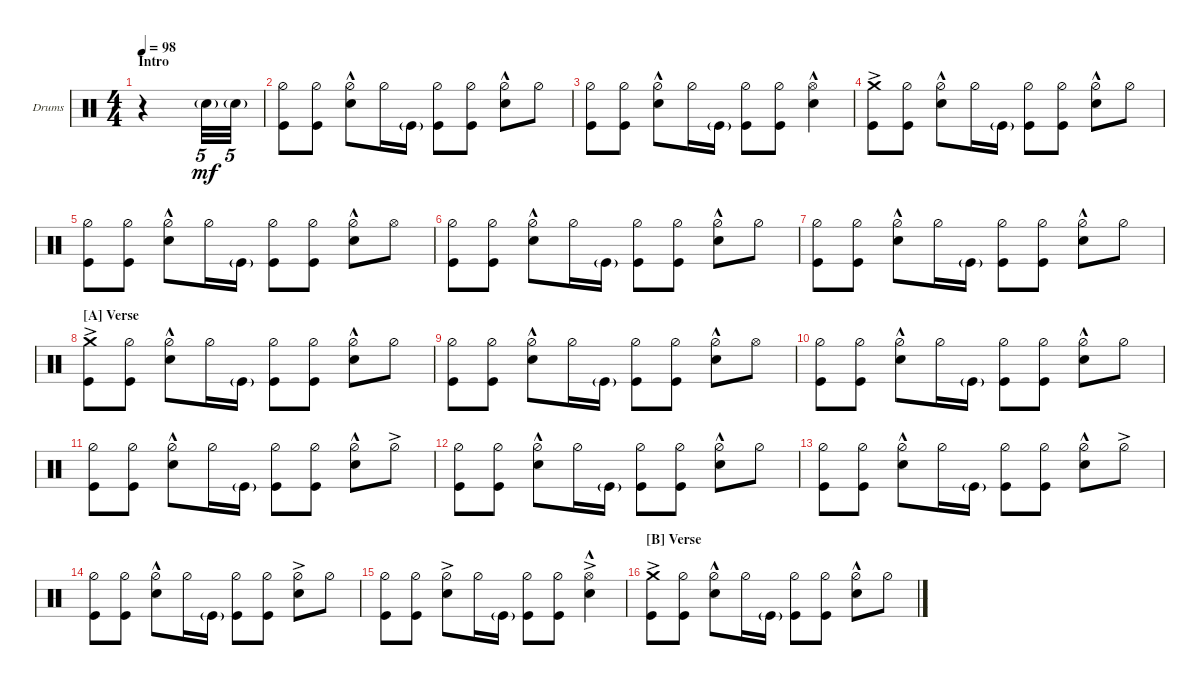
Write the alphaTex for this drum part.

\defaultSystemsLayout 4
\bracketExtendMode groupsimilarinstruments
\firstSystemTrackNameOrientation horizontal
\otherSystemsTrackNameOrientation horizontal
\track ("Drumkit (Chad Smith)" "Drums") {instrument percussion}
\staff {score}
\articulation defaults
\ts (4 4)
\section ("" "Intro")
\ac
\tempo 98
\clef neutral
\scale
0.474178
\ks c
r.4{dy mf} "Snare (hit) 2"{g}.32{tu (5 4)} "Snare (hit) 2"{g}.32{tu (5 4)} |
\scale
0.262911 ("Kick (hit)" "Hi-Hat (half)").8 ("Kick (hit)" "Hi-Hat (half)").8 ("Snare (hit) 2"{hac} "Hi-Hat (half)").8 "Hi-Hat (half)".16 "Kick (hit)"{g}.16 ("Kick (hit)" "Hi-Hat (half)").8 ("Kick (hit)" "Hi-Hat (half)").8 ("Snare (hit) 2"{hac} "Hi-Hat (half)").8 "Hi-Hat (half)".8 |
\scale
0.262911 ("Kick (hit)" "Hi-Hat (half)").8 ("Kick (hit)" "Hi-Hat (half)").8 ("Snare (hit) 2"{hac} "Hi-Hat (half)").8 "Hi-Hat (half)".16 "Kick (hit)"{g}.16 ("Kick (hit)" "Hi-Hat (half)").8 ("Kick (hit)" "Hi-Hat (half)").8 ("Snare (hit) 2"{hac} "Hi-Hat (open)").4 |
\scale
0.333333 ("Kick (hit)" "Crash medium (hit)"{ac}).8 ("Kick (hit)" "Hi-Hat (half)").8 ("Snare (hit) 2"{hac} "Hi-Hat (half)").8 "Hi-Hat (half)".16 "Kick (hit)"{g}.16 ("Kick (hit)" "Hi-Hat (half)").8 ("Kick (hit)" "Hi-Hat (half)").8 ("Snare (hit) 2"{hac} "Hi-Hat (half)").8 "Hi-Hat (half)".8 |
\scale
0.333333 ("Kick (hit)" "Hi-Hat (half)").8 ("Kick (hit)" "Hi-Hat (half)").8 ("Snare (hit) 2"{hac} "Hi-Hat (half)").8 "Hi-Hat (half)".16 "Kick (hit)"{g}.16 ("Kick (hit)" "Hi-Hat (half)").8 ("Kick (hit)" "Hi-Hat (half)").8 ("Snare (hit) 2"{hac} "Hi-Hat (half)").8 "Hi-Hat (open)".8 |
\scale
0.333333 ("Kick (hit)" "Hi-Hat (half)").8 ("Kick (hit)" "Hi-Hat (half)").8 ("Snare (hit) 2"{hac} "Hi-Hat (half)").8 "Hi-Hat (half)".16 "Kick (hit)"{g}.16 ("Kick (hit)" "Hi-Hat (half)").8 ("Kick (hit)" "Hi-Hat (half)").8 ("Snare (hit) 2"{hac} "Hi-Hat (half)").8 "Hi-Hat (half)".8 |
\scale
0.333333 ("Kick (hit)" "Hi-Hat (half)").8 ("Kick (hit)" "Hi-Hat (half)").8 ("Snare (hit) 2"{hac} "Hi-Hat (half)").8 "Hi-Hat (half)".16 "Kick (hit)"{g}.16 ("Kick (hit)" "Hi-Hat (half)").8 ("Kick (hit)" "Hi-Hat (half)").8 ("Snare (hit) 2"{hac} "Hi-Hat (half)").8 "Hi-Hat (half)".8 |
\section ("A" "Verse")
\scale
0.333333 ("Kick (hit)" "Crash medium (hit)"{ac}).8 ("Kick (hit)" "Hi-Hat (half)").8 ("Snare (hit) 2"{hac} "Hi-Hat (half)").8 "Hi-Hat (half)".16 "Kick (hit)"{g}.16 ("Kick (hit)" "Hi-Hat (half)").8 ("Kick (hit)" "Hi-Hat (half)").8 ("Snare (hit) 2"{hac} "Hi-Hat (half)").8 "Hi-Hat (half)".8 |
\scale
0.333333 ("Kick (hit)" "Hi-Hat (half)").8 ("Kick (hit)" "Hi-Hat (half)").8 ("Snare (hit) 2"{hac} "Hi-Hat (half)").8 "Hi-Hat (half)".16 "Kick (hit)"{g}.16 ("Kick (hit)" "Hi-Hat (half)").8 ("Kick (hit)" "Hi-Hat (half)").8 ("Snare (hit) 2"{hac} "Hi-Hat (half)").8 "Hi-Hat (open)".8 |
\scale
0.333333 ("Kick (hit)" "Hi-Hat (half)").8 ("Kick (hit)" "Hi-Hat (half)").8 ("Snare (hit) 2"{hac} "Hi-Hat (half)").8 "Hi-Hat (half)".16 "Kick (hit)"{g}.16 ("Kick (hit)" "Hi-Hat (half)").8 ("Kick (hit)" "Hi-Hat (half)").8 ("Snare (hit) 2"{hac} "Hi-Hat (half)").8 "Hi-Hat (half)".8 |
\scale
0.333333 ("Kick (hit)" "Hi-Hat (half)").8 ("Kick (hit)" "Hi-Hat (half)").8 ("Snare (hit) 2"{hac} "Hi-Hat (half)").8 "Hi-Hat (half)".16 "Kick (hit)"{g}.16 ("Kick (hit)" "Hi-Hat (half)").8 ("Kick (hit)" "Hi-Hat (half)").8 ("Snare (hit) 2"{hac} "Hi-Hat (half)").8 "Hi-Hat (half)"{ac}.8 |
("Kick (hit)" "Hi-Hat (half)").8 ("Kick (hit)" "Hi-Hat (half)").8 ("Snare (hit) 2"{hac} "Hi-Hat (half)").8 "Hi-Hat (half)".16 "Kick (hit)"{g}.16 ("Kick (hit)" "Hi-Hat (half)").8 ("Kick (hit)" "Hi-Hat (half)").8 ("Snare (hit) 2"{hac} "Hi-Hat (half)").8 "Hi-Hat (half)".8 |
\scale
0.333333 ("Kick (hit)" "Hi-Hat (half)").8 ("Kick (hit)" "Hi-Hat (half)").8 ("Snare (hit) 2"{hac} "Hi-Hat (half)").8 "Hi-Hat (half)".16 "Kick (hit)"{g}.16 ("Kick (hit)" "Hi-Hat (half)").8 ("Kick (hit)" "Hi-Hat (half)").8 ("Snare (hit) 2"{hac} "Hi-Hat (half)").8 "Hi-Hat (half)"{ac}.8 |
\scale
0.333333 ("Kick (hit)" "Hi-Hat (half)").8 ("Kick (hit)" "Hi-Hat (half)").8 ("Snare (hit) 2"{hac} "Hi-Hat (half)").8 "Hi-Hat (half)".16 "Kick (hit)"{g}.16 ("Kick (hit)" "Hi-Hat (half)").8 ("Kick (hit)" "Hi-Hat (half)").8 ("Snare (hit) 2"{ac} "Hi-Hat (half)").8 "Hi-Hat (half)".8 |
\scale
0.333333 ("Kick (hit)" "Hi-Hat (half)").8 ("Kick (hit)" "Hi-Hat (half)").8 ("Snare (hit) 2"{ac} "Hi-Hat (half)").8 "Hi-Hat (half)".16 "Kick (hit)"{g}.16 ("Kick (hit)" "Hi-Hat (half)").8 ("Kick (hit)" "Hi-Hat (half)").8 ("Snare (hit) 2"{ac} "Hi-Hat (open)"{hac}).4 |
\section ("B" "Verse")
("Kick (hit)" "Crash medium (hit)"{ac}).8 ("Kick (hit)" "Hi-Hat (half)").8 ("Snare (hit) 2"{hac} "Hi-Hat (half)").8 "Hi-Hat (half)".16 "Kick (hit)"{g}.16 ("Kick (hit)" "Hi-Hat (half)").8 ("Kick (hit)" "Hi-Hat (half)").8 ("Snare (hit) 2"{hac} "Hi-Hat (half)").8 "Hi-Hat (half)".8
